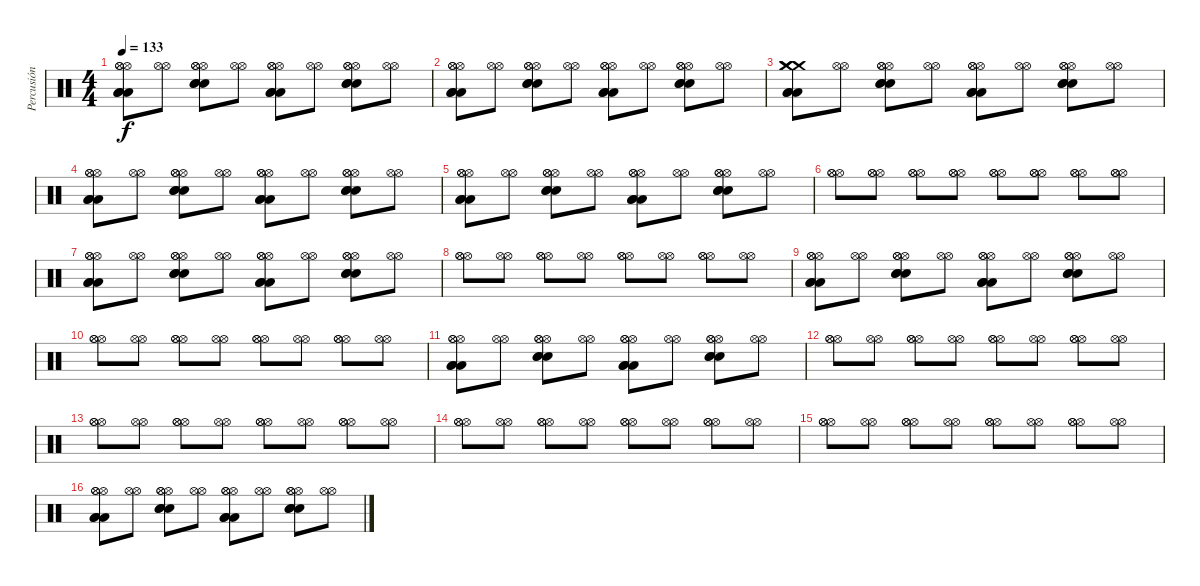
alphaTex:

\track ("Percusión" "Percusión") {instrument percussion}
\staff {score}
\articulation defaults
\ts (4 4)
\tempo 133
\clef neutral
\ks c
("Hi-Hat (open)" "Hi-Hat (open)" "Hi-Hat (open)" "Low Tom (hit)" "Low Tom (hit)" "Low Tom (hit)").8{dy f} ("Hi-Hat (open)" "Hi-Hat (open)").8 ("Hi-Hat (open)" "Hi-Hat (open)" "Hi-Hat (open)" "Snare (hit) 2" "Snare (hit) 2" "Snare (hit) 2").8 ("Hi-Hat (open)" "Hi-Hat (open)").8 ("Hi-Hat (open)" "Hi-Hat (open)" "Hi-Hat (open)" "Low Tom (hit)" "Low Tom (hit)" "Low Tom (hit)").8 ("Hi-Hat (open)" "Hi-Hat (open)").8 ("Hi-Hat (open)" "Hi-Hat (open)" "Hi-Hat (open)" "Snare (hit) 2" "Snare (hit) 2" "Snare (hit) 2").8 ("Hi-Hat (open)" "Hi-Hat (open)").8 |
("Hi-Hat (open)" "Hi-Hat (open)" "Hi-Hat (open)" "Low Tom (hit)" "Low Tom (hit)" "Low Tom (hit)").8 ("Hi-Hat (open)" "Hi-Hat (open)").8 ("Hi-Hat (open)" "Hi-Hat (open)" "Hi-Hat (open)" "Snare (hit) 2" "Snare (hit) 2" "Snare (hit) 2").8 ("Hi-Hat (open)" "Hi-Hat (open)").8 ("Hi-Hat (open)" "Hi-Hat (open)" "Hi-Hat (open)" "Low Tom (hit)" "Low Tom (hit)" "Low Tom (hit)").8 ("Hi-Hat (open)" "Hi-Hat (open)").8 ("Hi-Hat (open)" "Hi-Hat (open)" "Hi-Hat (open)" "Snare (hit) 2" "Snare (hit) 2" "Snare (hit) 2").8 ("Hi-Hat (open)" "Hi-Hat (open)").8 |
("Crash medium (hit)" "Crash medium (hit)" "Crash medium (hit)" "Low Tom (hit)" "Low Tom (hit)" "Low Tom (hit)").8 ("Hi-Hat (open)" "Hi-Hat (open)").8 ("Hi-Hat (open)" "Hi-Hat (open)" "Hi-Hat (open)" "Snare (hit) 2" "Snare (hit) 2" "Snare (hit) 2").8 ("Hi-Hat (open)" "Hi-Hat (open)").8 ("Hi-Hat (open)" "Hi-Hat (open)" "Hi-Hat (open)" "Low Tom (hit)" "Low Tom (hit)" "Low Tom (hit)").8 ("Hi-Hat (open)" "Hi-Hat (open)").8 ("Hi-Hat (open)" "Hi-Hat (open)" "Hi-Hat (open)" "Snare (hit) 2" "Snare (hit) 2" "Snare (hit) 2").8 ("Hi-Hat (open)" "Hi-Hat (open)").8 |
("Hi-Hat (open)" "Hi-Hat (open)" "Hi-Hat (open)" "Low Tom (hit)" "Low Tom (hit)" "Low Tom (hit)").8 ("Hi-Hat (open)" "Hi-Hat (open)").8 ("Hi-Hat (open)" "Hi-Hat (open)" "Hi-Hat (open)" "Snare (hit) 2" "Snare (hit) 2" "Snare (hit) 2").8 ("Hi-Hat (open)" "Hi-Hat (open)").8 ("Hi-Hat (open)" "Hi-Hat (open)" "Hi-Hat (open)" "Low Tom (hit)" "Low Tom (hit)" "Low Tom (hit)").8 ("Hi-Hat (open)" "Hi-Hat (open)").8 ("Hi-Hat (open)" "Hi-Hat (open)" "Hi-Hat (open)" "Snare (hit) 2" "Snare (hit) 2" "Snare (hit) 2").8 ("Hi-Hat (open)" "Hi-Hat (open)").8 |
("Hi-Hat (open)" "Hi-Hat (open)" "Hi-Hat (open)" "Low Tom (hit)" "Low Tom (hit)" "Low Tom (hit)").8 ("Hi-Hat (open)" "Hi-Hat (open)").8 ("Hi-Hat (open)" "Hi-Hat (open)" "Hi-Hat (open)" "Snare (hit) 2" "Snare (hit) 2" "Snare (hit) 2").8 ("Hi-Hat (open)" "Hi-Hat (open)").8 ("Hi-Hat (open)" "Hi-Hat (open)" "Hi-Hat (open)" "Low Tom (hit)" "Low Tom (hit)" "Low Tom (hit)").8 ("Hi-Hat (open)" "Hi-Hat (open)").8 ("Hi-Hat (open)" "Hi-Hat (open)" "Hi-Hat (open)" "Snare (hit) 2" "Snare (hit) 2" "Snare (hit) 2").8 ("Hi-Hat (open)" "Hi-Hat (open)").8 |
("Hi-Hat (open)" "Hi-Hat (open)" "Hi-Hat (open)").8 ("Hi-Hat (open)" "Hi-Hat (open)" "Hi-Hat (open)").8 ("Hi-Hat (open)" "Hi-Hat (open)" "Hi-Hat (open)").8 ("Hi-Hat (open)" "Hi-Hat (open)" "Hi-Hat (open)").8 ("Hi-Hat (open)" "Hi-Hat (open)" "Hi-Hat (open)").8 ("Hi-Hat (open)" "Hi-Hat (open)" "Hi-Hat (open)").8 ("Hi-Hat (open)" "Hi-Hat (open)" "Hi-Hat (open)").8 ("Hi-Hat (open)" "Hi-Hat (open)" "Hi-Hat (open)").8 |
("Hi-Hat (open)" "Hi-Hat (open)" "Hi-Hat (open)" "Low Tom (hit)" "Low Tom (hit)" "Low Tom (hit)").8 ("Hi-Hat (open)" "Hi-Hat (open)").8 ("Hi-Hat (open)" "Hi-Hat (open)" "Hi-Hat (open)" "Snare (hit) 2" "Snare (hit) 2" "Snare (hit) 2").8 ("Hi-Hat (open)" "Hi-Hat (open)").8 ("Hi-Hat (open)" "Hi-Hat (open)" "Hi-Hat (open)" "Low Tom (hit)" "Low Tom (hit)" "Low Tom (hit)").8 ("Hi-Hat (open)" "Hi-Hat (open)").8 ("Hi-Hat (open)" "Hi-Hat (open)" "Hi-Hat (open)" "Snare (hit) 2" "Snare (hit) 2" "Snare (hit) 2").8 ("Hi-Hat (open)" "Hi-Hat (open)").8 |
("Hi-Hat (open)" "Hi-Hat (open)" "Hi-Hat (open)").8 ("Hi-Hat (open)" "Hi-Hat (open)").8 ("Hi-Hat (open)" "Hi-Hat (open)" "Hi-Hat (open)").8 ("Hi-Hat (open)" "Hi-Hat (open)").8 ("Hi-Hat (open)" "Hi-Hat (open)" "Hi-Hat (open)").8 ("Hi-Hat (open)" "Hi-Hat (open)").8 ("Hi-Hat (open)" "Hi-Hat (open)" "Hi-Hat (open)").8 ("Hi-Hat (open)" "Hi-Hat (open)").8 |
("Hi-Hat (open)" "Hi-Hat (open)" "Hi-Hat (open)" "Low Tom (hit)" "Low Tom (hit)" "Low Tom (hit)").8 ("Hi-Hat (open)" "Hi-Hat (open)").8 ("Hi-Hat (open)" "Hi-Hat (open)" "Hi-Hat (open)" "Snare (hit) 2" "Snare (hit) 2" "Snare (hit) 2").8 ("Hi-Hat (open)" "Hi-Hat (open)").8 ("Hi-Hat (open)" "Hi-Hat (open)" "Hi-Hat (open)" "Low Tom (hit)" "Low Tom (hit)" "Low Tom (hit)").8 ("Hi-Hat (open)" "Hi-Hat (open)").8 ("Hi-Hat (open)" "Hi-Hat (open)" "Hi-Hat (open)" "Snare (hit) 2" "Snare (hit) 2" "Snare (hit) 2").8 ("Hi-Hat (open)" "Hi-Hat (open)").8 |
("Hi-Hat (open)" "Hi-Hat (open)" "Hi-Hat (open)").8 ("Hi-Hat (open)" "Hi-Hat (open)").8 ("Hi-Hat (open)" "Hi-Hat (open)" "Hi-Hat (open)").8 ("Hi-Hat (open)" "Hi-Hat (open)").8 ("Hi-Hat (open)" "Hi-Hat (open)" "Hi-Hat (open)").8 ("Hi-Hat (open)" "Hi-Hat (open)").8 ("Hi-Hat (open)" "Hi-Hat (open)" "Hi-Hat (open)").8 ("Hi-Hat (open)" "Hi-Hat (open)").8 |
("Hi-Hat (open)" "Hi-Hat (open)" "Hi-Hat (open)" "Low Tom (hit)" "Low Tom (hit)" "Low Tom (hit)").8 ("Hi-Hat (open)" "Hi-Hat (open)").8 ("Hi-Hat (open)" "Hi-Hat (open)" "Hi-Hat (open)" "Snare (hit) 2" "Snare (hit) 2" "Snare (hit) 2").8 ("Hi-Hat (open)" "Hi-Hat (open)").8 ("Hi-Hat (open)" "Hi-Hat (open)" "Hi-Hat (open)" "Low Tom (hit)" "Low Tom (hit)" "Low Tom (hit)").8 ("Hi-Hat (open)" "Hi-Hat (open)").8 ("Hi-Hat (open)" "Hi-Hat (open)" "Hi-Hat (open)" "Snare (hit) 2" "Snare (hit) 2" "Snare (hit) 2").8 ("Hi-Hat (open)" "Hi-Hat (open)").8 |
("Hi-Hat (open)" "Hi-Hat (open)" "Hi-Hat (open)").8 ("Hi-Hat (open)" "Hi-Hat (open)").8 ("Hi-Hat (open)" "Hi-Hat (open)" "Hi-Hat (open)").8 ("Hi-Hat (open)" "Hi-Hat (open)").8 ("Hi-Hat (open)" "Hi-Hat (open)" "Hi-Hat (open)").8 ("Hi-Hat (open)" "Hi-Hat (open)").8 ("Hi-Hat (open)" "Hi-Hat (open)" "Hi-Hat (open)").8 ("Hi-Hat (open)" "Hi-Hat (open)").8 |
("Hi-Hat (open)" "Hi-Hat (open)" "Hi-Hat (open)").8 ("Hi-Hat (open)" "Hi-Hat (open)").8 ("Hi-Hat (open)" "Hi-Hat (open)" "Hi-Hat (open)").8 ("Hi-Hat (open)" "Hi-Hat (open)").8 ("Hi-Hat (open)" "Hi-Hat (open)" "Hi-Hat (open)").8 ("Hi-Hat (open)" "Hi-Hat (open)").8 ("Hi-Hat (open)" "Hi-Hat (open)" "Hi-Hat (open)").8 ("Hi-Hat (open)" "Hi-Hat (open)").8 |
("Hi-Hat (open)" "Hi-Hat (open)" "Hi-Hat (open)").8 ("Hi-Hat (open)" "Hi-Hat (open)").8 ("Hi-Hat (open)" "Hi-Hat (open)" "Hi-Hat (open)").8 ("Hi-Hat (open)" "Hi-Hat (open)").8 ("Hi-Hat (open)" "Hi-Hat (open)" "Hi-Hat (open)").8 ("Hi-Hat (open)" "Hi-Hat (open)").8 ("Hi-Hat (open)" "Hi-Hat (open)" "Hi-Hat (open)").8 ("Hi-Hat (open)" "Hi-Hat (open)").8 |
("Hi-Hat (open)" "Hi-Hat (open)" "Hi-Hat (open)").8 ("Hi-Hat (open)" "Hi-Hat (open)").8 ("Hi-Hat (open)" "Hi-Hat (open)" "Hi-Hat (open)").8 ("Hi-Hat (open)" "Hi-Hat (open)").8 ("Hi-Hat (open)" "Hi-Hat (open)" "Hi-Hat (open)").8 ("Hi-Hat (open)" "Hi-Hat (open)").8 ("Hi-Hat (open)" "Hi-Hat (open)" "Hi-Hat (open)").8 ("Hi-Hat (open)" "Hi-Hat (open)").8 |
("Hi-Hat (open)" "Hi-Hat (open)" "Hi-Hat (open)" "Low Tom (hit)" "Low Tom (hit)" "Low Tom (hit)").8 ("Hi-Hat (open)" "Hi-Hat (open)").8 ("Hi-Hat (open)" "Hi-Hat (open)" "Hi-Hat (open)" "Snare (hit) 2" "Snare (hit) 2" "Snare (hit) 2").8 ("Hi-Hat (open)" "Hi-Hat (open)").8 ("Hi-Hat (open)" "Hi-Hat (open)" "Hi-Hat (open)" "Low Tom (hit)" "Low Tom (hit)" "Low Tom (hit)").8 ("Hi-Hat (open)" "Hi-Hat (open)").8 ("Hi-Hat (open)" "Hi-Hat (open)" "Hi-Hat (open)" "Snare (hit) 2" "Snare (hit) 2" "Snare (hit) 2").8 ("Hi-Hat (open)" "Hi-Hat (open)").8
